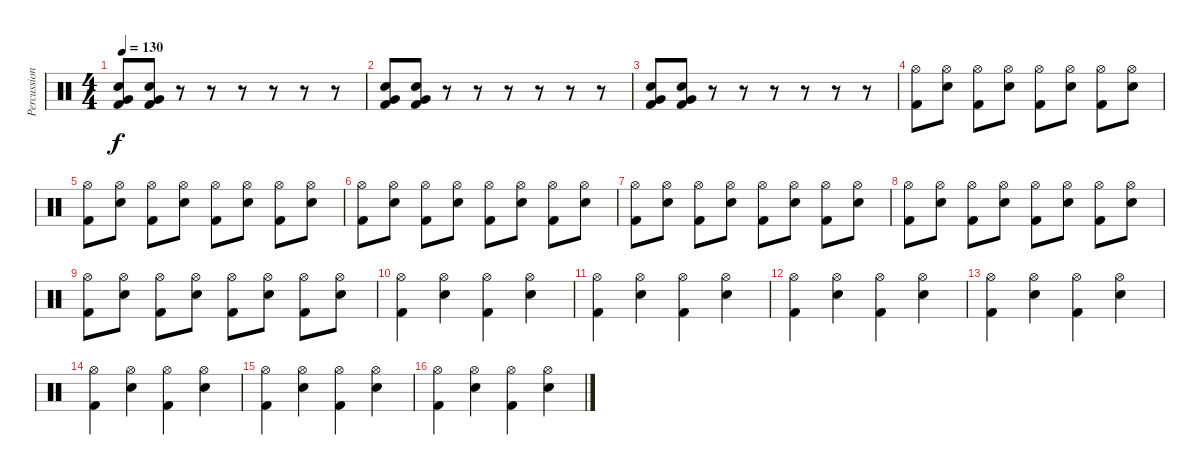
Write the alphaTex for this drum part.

\track ("Percussion" "Percussion") {instrument percussion}
\staff {score}
\articulation defaults
\ts (4 4)
\tempo 130
\clef neutral
\ks c
("Very Low Tom (hit)" "Electric Snare (hit)" "Kick (hit) 2").8{dy f} ("Very Low Tom (hit)" "Electric Snare (hit)" "Kick (hit) 2").8 r.8 r.8 r.8 r.8 r.8 r.8 |
("Very Low Tom (hit)" "Electric Snare (hit)" "Kick (hit) 2").8 ("Very Low Tom (hit)" "Electric Snare (hit)" "Kick (hit) 2").8 r.8 r.8 r.8 r.8 r.8 r.8 |
("Very Low Tom (hit)" "Electric Snare (hit)" "Kick (hit) 2").8 ("Very Low Tom (hit)" "Electric Snare (hit)" "Kick (hit) 2").8 r.8 r.8 r.8 r.8 r.8 r.8 |
("Hi-Hat (open)" "Kick (hit) 2").8 ("Hi-Hat (open)" "Electric Snare (hit)").8 ("Hi-Hat (open)" "Kick (hit) 2").8 ("Hi-Hat (open)" "Electric Snare (hit)").8 ("Hi-Hat (open)" "Kick (hit) 2").8 ("Hi-Hat (open)" "Electric Snare (hit)").8 ("Hi-Hat (open)" "Kick (hit) 2").8 ("Hi-Hat (open)" "Electric Snare (hit)").8 |
("Hi-Hat (open)" "Kick (hit) 2").8 ("Hi-Hat (open)" "Electric Snare (hit)").8 ("Hi-Hat (open)" "Kick (hit) 2").8 ("Hi-Hat (open)" "Electric Snare (hit)").8 ("Hi-Hat (open)" "Kick (hit) 2").8 ("Hi-Hat (open)" "Electric Snare (hit)").8 ("Hi-Hat (open)" "Kick (hit) 2").8 ("Hi-Hat (open)" "Electric Snare (hit)").8 |
("Hi-Hat (open)" "Kick (hit) 2").8 ("Hi-Hat (open)" "Electric Snare (hit)").8 ("Hi-Hat (open)" "Kick (hit) 2").8 ("Hi-Hat (open)" "Electric Snare (hit)").8 ("Hi-Hat (open)" "Kick (hit) 2").8 ("Hi-Hat (open)" "Electric Snare (hit)").8 ("Hi-Hat (open)" "Kick (hit) 2").8 ("Hi-Hat (open)" "Electric Snare (hit)").8 |
("Hi-Hat (open)" "Kick (hit) 2").8 ("Hi-Hat (open)" "Electric Snare (hit)").8 ("Hi-Hat (open)" "Kick (hit) 2").8 ("Hi-Hat (open)" "Electric Snare (hit)").8 ("Hi-Hat (open)" "Kick (hit) 2").8 ("Hi-Hat (open)" "Electric Snare (hit)").8 ("Hi-Hat (open)" "Kick (hit) 2").8 ("Hi-Hat (open)" "Electric Snare (hit)").8 |
("Hi-Hat (open)" "Kick (hit) 2").8 ("Hi-Hat (open)" "Electric Snare (hit)").8 ("Hi-Hat (open)" "Kick (hit) 2").8 ("Hi-Hat (open)" "Electric Snare (hit)").8 ("Hi-Hat (open)" "Kick (hit) 2").8 ("Hi-Hat (open)" "Electric Snare (hit)").8 ("Hi-Hat (open)" "Kick (hit) 2").8 ("Hi-Hat (open)" "Electric Snare (hit)").8 |
("Hi-Hat (open)" "Kick (hit) 2").8 ("Hi-Hat (open)" "Electric Snare (hit)").8 ("Hi-Hat (open)" "Kick (hit) 2").8 ("Hi-Hat (open)" "Electric Snare (hit)").8 ("Hi-Hat (open)" "Kick (hit) 2").8 ("Hi-Hat (open)" "Electric Snare (hit)").8 ("Hi-Hat (open)" "Kick (hit) 2").8 ("Hi-Hat (open)" "Electric Snare (hit)").8 |
("Hi-Hat (open)" "Kick (hit) 2").4 ("Hi-Hat (open)" "Electric Snare (hit)").4 ("Hi-Hat (open)" "Kick (hit) 2").4 ("Hi-Hat (open)" "Electric Snare (hit)").4 |
("Hi-Hat (open)" "Kick (hit) 2").4 ("Hi-Hat (open)" "Electric Snare (hit)").4 ("Hi-Hat (open)" "Kick (hit) 2").4 ("Hi-Hat (open)" "Electric Snare (hit)").4 |
("Hi-Hat (open)" "Kick (hit) 2").4 ("Hi-Hat (open)" "Electric Snare (hit)").4 ("Hi-Hat (open)" "Kick (hit) 2").4 ("Hi-Hat (open)" "Electric Snare (hit)").4 |
("Hi-Hat (open)" "Kick (hit) 2").4 ("Hi-Hat (open)" "Electric Snare (hit)").4 ("Hi-Hat (open)" "Kick (hit) 2").4 ("Hi-Hat (open)" "Electric Snare (hit)").4 |
("Hi-Hat (open)" "Kick (hit) 2").4 ("Hi-Hat (open)" "Electric Snare (hit)").4 ("Hi-Hat (open)" "Kick (hit) 2").4 ("Hi-Hat (open)" "Electric Snare (hit)").4 |
("Hi-Hat (open)" "Kick (hit) 2").4 ("Hi-Hat (open)" "Electric Snare (hit)").4 ("Hi-Hat (open)" "Kick (hit) 2").4 ("Hi-Hat (open)" "Electric Snare (hit)").4 |
("Hi-Hat (open)" "Kick (hit) 2").4 ("Hi-Hat (open)" "Electric Snare (hit)").4 ("Hi-Hat (open)" "Kick (hit) 2").4 ("Hi-Hat (open)" "Electric Snare (hit)").4
